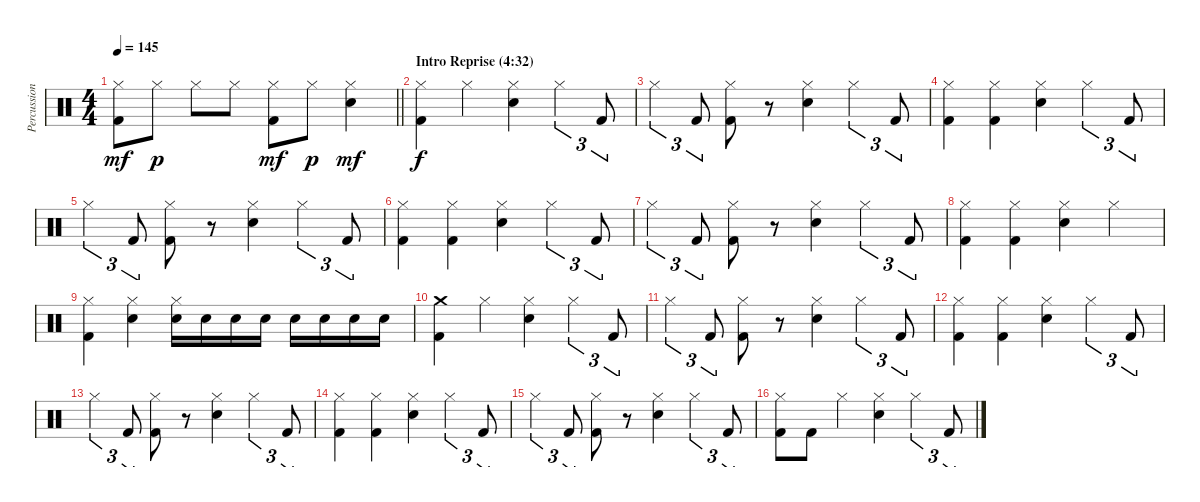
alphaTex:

\track ("Percussion" "Percussion") {instrument percussion}
\staff {score}
\articulation defaults
\ts (4 4)
\tempo 145
\clef neutral
\barLineRight lightlight
\ks c
("Hi-Hat (closed)" "Kick (hit) 2").8{dy mf} "Hi-Hat (closed)".8{dy p} "Hi-Hat (closed)".8 "Hi-Hat (closed)".8 ("Hi-Hat (closed)" "Kick (hit) 2").8{dy mf} "Hi-Hat (closed)".8{dy p} ("Hi-Hat (closed)" "Electric Snare (hit)").4{dy mf} |
\section ("" "Intro Reprise (4:32)")
("Hi-Hat (closed)" "Kick (hit) 2").4{dy f} "Hi-Hat (closed)".4 ("Hi-Hat (closed)" "Electric Snare (hit)").4 "Hi-Hat (closed)".4{tu (3 2)} "Kick (hit) 2".8{tu (3 2)} |
"Hi-Hat (closed)".4{tu (3 2)} "Kick (hit) 2".8{tu (3 2)} ("Hi-Hat (closed)" "Kick (hit) 2").8 r.8 ("Hi-Hat (closed)" "Electric Snare (hit)").4 "Hi-Hat (closed)".4{tu (3 2)} "Kick (hit) 2".8{tu (3 2)} |
("Hi-Hat (closed)" "Kick (hit) 2").4 ("Hi-Hat (closed)" "Kick (hit) 2").4 ("Hi-Hat (closed)" "Electric Snare (hit)").4 "Hi-Hat (closed)".4{tu (3 2)} "Kick (hit) 2".8{tu (3 2)} |
"Hi-Hat (closed)".4{tu (3 2)} "Kick (hit) 2".8{tu (3 2)} ("Hi-Hat (closed)" "Kick (hit) 2").8 r.8 ("Hi-Hat (closed)" "Electric Snare (hit)").4 "Hi-Hat (closed)".4{tu (3 2)} "Kick (hit) 2".8{tu (3 2)} |
("Hi-Hat (closed)" "Kick (hit) 2").4 ("Hi-Hat (closed)" "Kick (hit) 2").4 ("Hi-Hat (closed)" "Electric Snare (hit)").4 "Hi-Hat (closed)".4{tu (3 2)} "Kick (hit) 2".8{tu (3 2)} |
"Hi-Hat (closed)".4{tu (3 2)} "Kick (hit) 2".8{tu (3 2)} ("Hi-Hat (closed)" "Kick (hit) 2").8 r.8 ("Hi-Hat (closed)" "Electric Snare (hit)").4 "Hi-Hat (closed)".4{tu (3 2)} "Kick (hit) 2".8{tu (3 2)} |
("Hi-Hat (closed)" "Kick (hit) 2").4 ("Hi-Hat (closed)" "Kick (hit) 2").4 ("Hi-Hat (closed)" "Electric Snare (hit)").4 "Hi-Hat (closed)".4 |
("Hi-Hat (closed)" "Kick (hit) 2").4 ("Hi-Hat (closed)" "Electric Snare (hit)").4 ("Hi-Hat (closed)" "Electric Snare (hit)").16 "Electric Snare (hit)".16 "Electric Snare (hit)".16 "Electric Snare (hit)".16 "Electric Snare (hit)".16 "Electric Snare (hit)".16 "Electric Snare (hit)".16 "Electric Snare (hit)".16 |
("Crash medium (hit)" "Kick (hit) 2").4 "Hi-Hat (closed)".4 ("Hi-Hat (closed)" "Electric Snare (hit)").4 "Hi-Hat (closed)".4{tu (3 2)} "Kick (hit) 2".8{tu (3 2)} |
"Hi-Hat (closed)".4{tu (3 2)} "Kick (hit) 2".8{tu (3 2)} ("Hi-Hat (closed)" "Kick (hit) 2").8 r.8 ("Hi-Hat (closed)" "Electric Snare (hit)").4 "Hi-Hat (closed)".4{tu (3 2)} "Kick (hit) 2".8{tu (3 2)} |
("Hi-Hat (closed)" "Kick (hit) 2").4 ("Hi-Hat (closed)" "Kick (hit) 2").4 ("Hi-Hat (closed)" "Electric Snare (hit)").4 "Hi-Hat (closed)".4{tu (3 2)} "Kick (hit) 2".8{tu (3 2)} |
"Hi-Hat (closed)".4{tu (3 2)} "Kick (hit) 2".8{tu (3 2)} ("Hi-Hat (closed)" "Kick (hit) 2").8 r.8 ("Hi-Hat (closed)" "Electric Snare (hit)").4 "Hi-Hat (closed)".4{tu (3 2)} "Kick (hit) 2".8{tu (3 2)} |
("Hi-Hat (closed)" "Kick (hit) 2").4 ("Hi-Hat (closed)" "Kick (hit) 2").4 ("Hi-Hat (closed)" "Electric Snare (hit)").4 "Hi-Hat (closed)".4{tu (3 2)} "Kick (hit) 2".8{tu (3 2)} |
"Hi-Hat (closed)".4{tu (3 2)} "Kick (hit) 2".8{tu (3 2)} ("Hi-Hat (closed)" "Kick (hit) 2").8 r.8 ("Hi-Hat (closed)" "Electric Snare (hit)").4 "Hi-Hat (closed)".4{tu (3 2)} "Kick (hit) 2".8{tu (3 2)} |
("Hi-Hat (closed)" "Kick (hit) 2").8 "Kick (hit) 2".8 "Hi-Hat (closed)".4 ("Hi-Hat (closed)" "Electric Snare (hit)").4 "Hi-Hat (closed)".4{tu (3 2)} "Kick (hit) 2".8{tu (3 2)}
